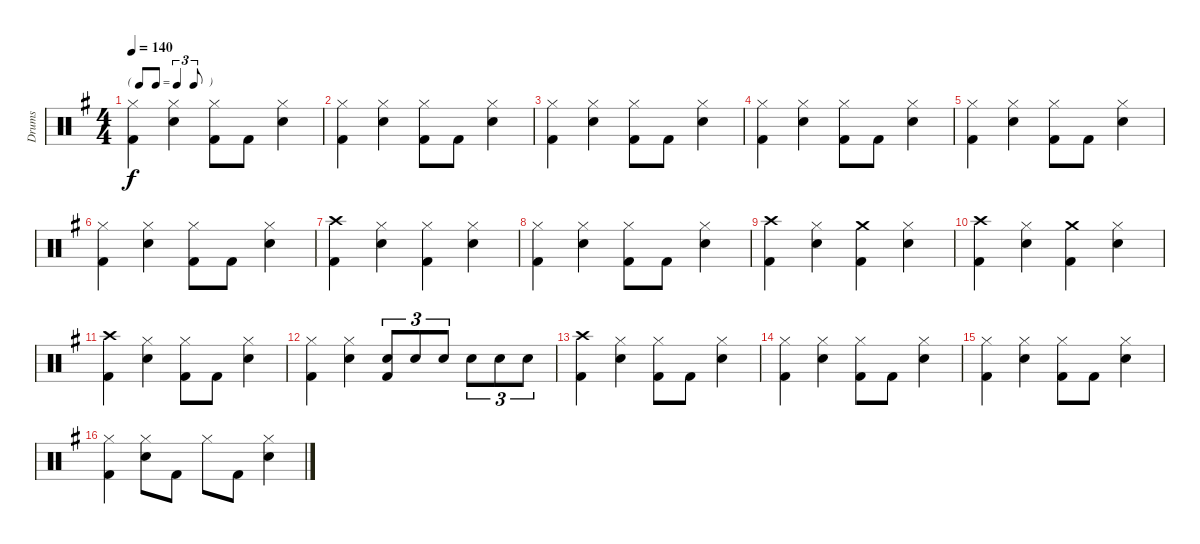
\track ("Drums" "Drums") {instrument percussion}
\staff {score}
\articulation defaults
\ts (4 4)
\tf triplet8th
\tempo 140
\clef neutral
\ks eminor
("Kick (hit) 2" "Hi-Hat (closed)").4{dy f} ("Snare (hit) 2" "Hi-Hat (closed)").4 ("Kick (hit) 2" "Hi-Hat (closed)").8 "Kick (hit) 2".8 ("Snare (hit) 2" "Hi-Hat (closed)").4 |
("Kick (hit) 2" "Hi-Hat (closed)").4 ("Snare (hit) 2" "Hi-Hat (closed)").4 ("Kick (hit) 2" "Hi-Hat (closed)").8 "Kick (hit) 2".8 ("Snare (hit) 2" "Hi-Hat (closed)").4 |
("Kick (hit) 2" "Hi-Hat (closed)").4 ("Snare (hit) 2" "Hi-Hat (closed)").4 ("Kick (hit) 2" "Hi-Hat (closed)").8 "Kick (hit) 2".8 ("Snare (hit) 2" "Hi-Hat (closed)").4 |
("Kick (hit) 2" "Hi-Hat (closed)").4 ("Snare (hit) 2" "Hi-Hat (closed)").4 ("Kick (hit) 2" "Hi-Hat (closed)").8 "Kick (hit) 2".8 ("Snare (hit) 2" "Hi-Hat (closed)").4 |
("Kick (hit) 2" "Hi-Hat (closed)").4 ("Snare (hit) 2" "Hi-Hat (closed)").4 ("Kick (hit) 2" "Hi-Hat (closed)").8 "Kick (hit) 2".8 ("Snare (hit) 2" "Hi-Hat (closed)").4 |
("Kick (hit) 2" "Hi-Hat (closed)").4 ("Snare (hit) 2" "Hi-Hat (closed)").4 ("Kick (hit) 2" "Hi-Hat (closed)").8 "Kick (hit) 2".8 ("Snare (hit) 2" "Hi-Hat (closed)").4 |
("Kick (hit) 2" "Crash high (hit)").4 ("Snare (hit) 2" "Hi-Hat (closed)").4 ("Kick (hit) 2" "Hi-Hat (closed)").4 ("Snare (hit) 2" "Hi-Hat (closed)").4 |
("Kick (hit) 2" "Hi-Hat (closed)").4 ("Snare (hit) 2" "Hi-Hat (closed)").4 ("Kick (hit) 2" "Hi-Hat (closed)").8 "Kick (hit) 2".8 ("Snare (hit) 2" "Hi-Hat (closed)").4 |
("Kick (hit) 2" "Crash high (hit)").4 ("Snare (hit) 2" "Hi-Hat (closed)").4 ("Kick (hit) 2" "Crash medium (hit)").4 ("Snare (hit) 2" "Hi-Hat (closed)").4 |
("Kick (hit) 2" "Crash high (hit)").4 ("Snare (hit) 2" "Hi-Hat (closed)").4 ("Kick (hit) 2" "Crash medium (hit)").4 ("Snare (hit) 2" "Hi-Hat (closed)").4 |
("Kick (hit) 2" "Crash high (hit)").4 ("Snare (hit) 2" "Hi-Hat (closed)").4 ("Kick (hit) 2" "Hi-Hat (closed)").8 "Kick (hit) 2".8 ("Snare (hit) 2" "Hi-Hat (closed)").4 |
("Kick (hit) 2" "Hi-Hat (closed)").4 ("Snare (hit) 2" "Hi-Hat (closed)").4 ("Kick (hit) 2" "Snare (hit) 2").8{tu (3 2)} "Snare (hit) 2".8{tu (3 2)} "Snare (hit) 2".8{tu (3 2)} "Snare (hit) 2".8{tu (3 2)} "Snare (hit) 2".8{tu (3 2)} "Snare (hit) 2".8{tu (3 2)} |
("Kick (hit) 2" "Crash high (hit)").4 ("Snare (hit) 2" "Hi-Hat (closed)").4 ("Kick (hit) 2" "Hi-Hat (closed)").8 "Kick (hit) 2".8 ("Snare (hit) 2" "Hi-Hat (closed)").4 |
("Kick (hit) 2" "Hi-Hat (closed)").4 ("Snare (hit) 2" "Hi-Hat (closed)").4 ("Kick (hit) 2" "Hi-Hat (closed)").8 "Kick (hit) 2".8 ("Snare (hit) 2" "Hi-Hat (closed)").4 |
("Kick (hit) 2" "Hi-Hat (closed)").4 ("Snare (hit) 2" "Hi-Hat (closed)").4 ("Kick (hit) 2" "Hi-Hat (closed)").8 "Kick (hit) 2".8 ("Snare (hit) 2" "Hi-Hat (closed)").4 |
("Kick (hit) 2" "Hi-Hat (closed)").4 ("Snare (hit) 2" "Hi-Hat (closed)").8 "Kick (hit) 2".8 "Hi-Hat (closed)".8 "Kick (hit) 2".8 ("Snare (hit) 2" "Hi-Hat (closed)").4
